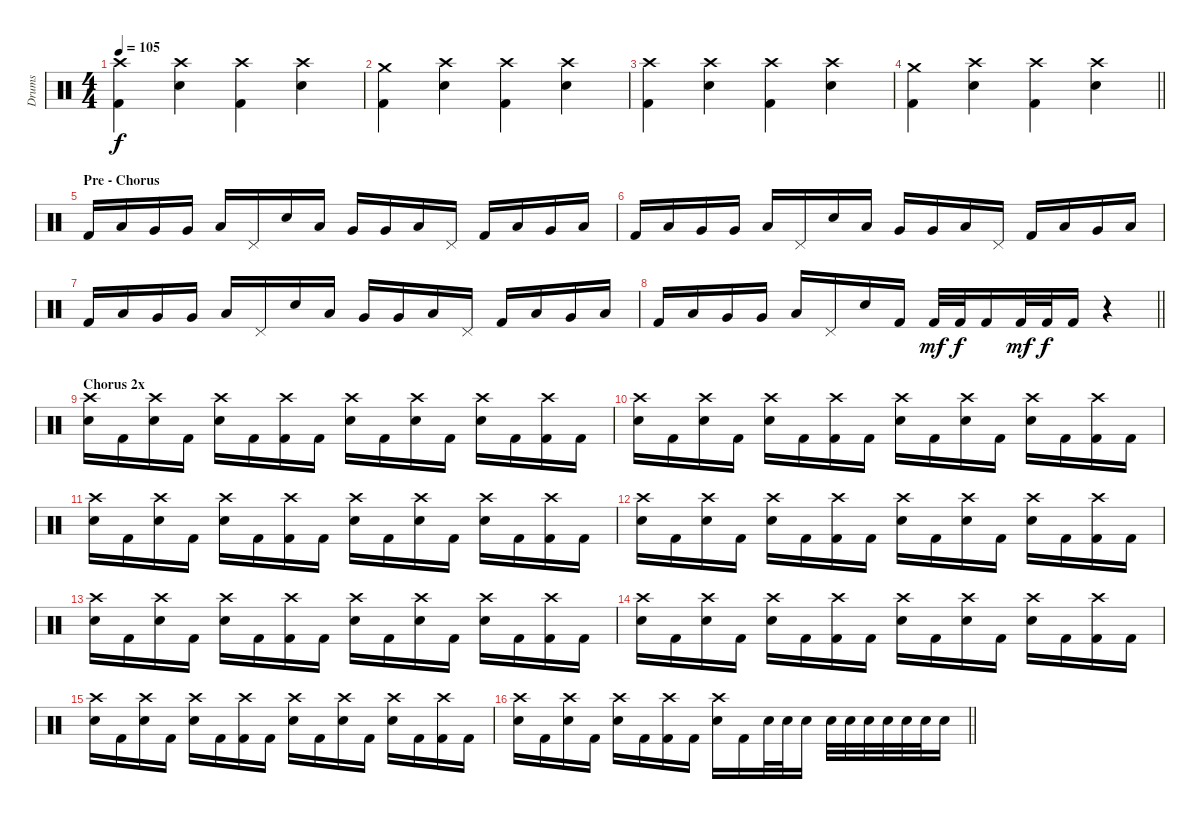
\track ("Drums" "Drums") {instrument percussion}
\staff {score}
\articulation defaults
\ts (4 4)
\tempo 105
\clef neutral
\ks c
("Crash high (hit)" "Kick (hit) 2").4{dy f} ("Crash high (hit)" "Electric Snare (hit)").4 ("Crash high (hit)" "Kick (hit) 2").4 ("Crash high (hit)" "Electric Snare (hit)").4 |
("Crash medium (hit)" "Kick (hit) 2").4 ("Crash high (hit)" "Electric Snare (hit)").4 ("Crash high (hit)" "Kick (hit) 2").4 ("Crash high (hit)" "Electric Snare (hit)").4 |
("Crash high (hit)" "Kick (hit) 2").4 ("Crash high (hit)" "Electric Snare (hit)").4 ("Crash high (hit)" "Kick (hit) 2").4 ("Crash high (hit)" "Electric Snare (hit)").4 |
\barLineRight lightlight
("Crash medium (hit)" "Kick (hit) 2").4 ("Crash high (hit)" "Electric Snare (hit)").4 ("Crash high (hit)" "Kick (hit) 2").4 ("Crash high (hit)" "Electric Snare (hit)").4 |
\section ("" "Pre - Chorus")
"Kick (hit) 2".16 "Low Tom (hit)".16 "Very Low Tom (hit)".16 "Very Low Tom (hit)".16 "Low Floor Tom (hit)".16 "Pedal Hi-Hat (hit)".16 "Electric Snare (hit)".16 "Low Tom (hit)".16 "Very Low Tom (hit)".16 "Very Low Tom (hit)".16 "Low Floor Tom (hit)".16 "Pedal Hi-Hat (hit)".16 "Kick (hit) 2".16 "Low Tom (hit)".16 "Very Low Tom (hit)".16 "Low Floor Tom (hit)".16 |
"Kick (hit) 2".16 "Low Tom (hit)".16 "Very Low Tom (hit)".16 "Very Low Tom (hit)".16 "Low Floor Tom (hit)".16 "Pedal Hi-Hat (hit)".16 "Electric Snare (hit)".16 "Low Tom (hit)".16 "Very Low Tom (hit)".16 "Very Low Tom (hit)".16 "Low Floor Tom (hit)".16 "Pedal Hi-Hat (hit)".16 "Kick (hit) 2".16 "Low Tom (hit)".16 "Very Low Tom (hit)".16 "Low Floor Tom (hit)".16 |
"Kick (hit) 2".16 "Low Tom (hit)".16 "Very Low Tom (hit)".16 "Very Low Tom (hit)".16 "Low Floor Tom (hit)".16 "Pedal Hi-Hat (hit)".16 "Electric Snare (hit)".16 "Low Tom (hit)".16 "Very Low Tom (hit)".16 "Very Low Tom (hit)".16 "Low Floor Tom (hit)".16 "Pedal Hi-Hat (hit)".16 "Kick (hit) 2".16 "Low Tom (hit)".16 "Very Low Tom (hit)".16 "Low Floor Tom (hit)".16 |
\barLineRight lightlight "Kick (hit) 2".16 "Low Tom (hit)".16 "Very Low Tom (hit)".16 "Very Low Tom (hit)".16 "Low Floor Tom (hit)".16 "Pedal Hi-Hat (hit)".16 "Electric Snare (hit)".16 "Kick (hit) 2".16 "Kick (hit) 2".32{dy mf} "Kick (hit) 2".32{dy f} "Kick (hit) 2".16 "Kick (hit) 2".32{dy mf} "Kick (hit) 2".32{dy f} "Kick (hit) 2".16
r.4 |
\section ("" "Chorus 2x")
("Crash high (hit)" "Electric Snare (hit)").16 "Kick (hit) 2".16 ("Crash high (hit)" "Electric Snare (hit)").16 "Kick (hit) 2".16 ("Crash high (hit)" "Electric Snare (hit)").16 "Kick (hit) 2".16 ("Crash high (hit)" "Kick (hit) 2").16 "Kick (hit) 2".16 ("Crash high (hit)" "Electric Snare (hit)").16 "Kick (hit) 2".16 ("Crash high (hit)" "Electric Snare (hit)").16 "Kick (hit) 2".16 ("Crash high (hit)" "Electric Snare (hit)").16 "Kick (hit) 2".16 ("Crash high (hit)" "Kick (hit) 2").16 "Kick (hit) 2".16 |
("Crash high (hit)" "Electric Snare (hit)").16 "Kick (hit) 2".16 ("Crash high (hit)" "Electric Snare (hit)").16 "Kick (hit) 2".16 ("Crash high (hit)" "Electric Snare (hit)").16 "Kick (hit) 2".16 ("Crash high (hit)" "Kick (hit) 2").16 "Kick (hit) 2".16 ("Crash high (hit)" "Electric Snare (hit)").16 "Kick (hit) 2".16 ("Crash high (hit)" "Electric Snare (hit)").16 "Kick (hit) 2".16 ("Crash high (hit)" "Electric Snare (hit)").16 "Kick (hit) 2".16 ("Crash high (hit)" "Kick (hit) 2").16 "Kick (hit) 2".16 |
("Crash high (hit)" "Electric Snare (hit)").16 "Kick (hit) 2".16 ("Crash high (hit)" "Electric Snare (hit)").16 "Kick (hit) 2".16 ("Crash high (hit)" "Electric Snare (hit)").16 "Kick (hit) 2".16 ("Crash high (hit)" "Kick (hit) 2").16 "Kick (hit) 2".16 ("Crash high (hit)" "Electric Snare (hit)").16 "Kick (hit) 2".16 ("Crash high (hit)" "Electric Snare (hit)").16 "Kick (hit) 2".16 ("Crash high (hit)" "Electric Snare (hit)").16 "Kick (hit) 2".16 ("Crash high (hit)" "Kick (hit) 2").16 "Kick (hit) 2".16 |
("Crash high (hit)" "Electric Snare (hit)").16 "Kick (hit) 2".16 ("Crash high (hit)" "Electric Snare (hit)").16 "Kick (hit) 2".16 ("Crash high (hit)" "Electric Snare (hit)").16 "Kick (hit) 2".16 ("Crash high (hit)" "Kick (hit) 2").16 "Kick (hit) 2".16 ("Crash high (hit)" "Electric Snare (hit)").16 "Kick (hit) 2".16 ("Crash high (hit)" "Electric Snare (hit)").16 "Kick (hit) 2".16 ("Crash high (hit)" "Electric Snare (hit)").16 "Kick (hit) 2".16 ("Crash high (hit)" "Kick (hit) 2").16 "Kick (hit) 2".16 |
("Crash high (hit)" "Electric Snare (hit)").16 "Kick (hit) 2".16 ("Crash high (hit)" "Electric Snare (hit)").16 "Kick (hit) 2".16 ("Crash high (hit)" "Electric Snare (hit)").16 "Kick (hit) 2".16 ("Crash high (hit)" "Kick (hit) 2").16 "Kick (hit) 2".16 ("Crash high (hit)" "Electric Snare (hit)").16 "Kick (hit) 2".16 ("Crash high (hit)" "Electric Snare (hit)").16 "Kick (hit) 2".16 ("Crash high (hit)" "Electric Snare (hit)").16 "Kick (hit) 2".16 ("Crash high (hit)" "Kick (hit) 2").16 "Kick (hit) 2".16 |
("Crash high (hit)" "Electric Snare (hit)").16 "Kick (hit) 2".16 ("Crash high (hit)" "Electric Snare (hit)").16 "Kick (hit) 2".16 ("Crash high (hit)" "Electric Snare (hit)").16 "Kick (hit) 2".16 ("Crash high (hit)" "Kick (hit) 2").16 "Kick (hit) 2".16 ("Crash high (hit)" "Electric Snare (hit)").16 "Kick (hit) 2".16 ("Crash high (hit)" "Electric Snare (hit)").16 "Kick (hit) 2".16 ("Crash high (hit)" "Electric Snare (hit)").16 "Kick (hit) 2".16 ("Crash high (hit)" "Kick (hit) 2").16 "Kick (hit) 2".16 |
("Crash high (hit)" "Electric Snare (hit)").16 "Kick (hit) 2".16 ("Crash high (hit)" "Electric Snare (hit)").16 "Kick (hit) 2".16 ("Crash high (hit)" "Electric Snare (hit)").16 "Kick (hit) 2".16 ("Crash high (hit)" "Kick (hit) 2").16 "Kick (hit) 2".16 ("Crash high (hit)" "Electric Snare (hit)").16 "Kick (hit) 2".16 ("Crash high (hit)" "Electric Snare (hit)").16 "Kick (hit) 2".16 ("Crash high (hit)" "Electric Snare (hit)").16 "Kick (hit) 2".16 ("Crash high (hit)" "Kick (hit) 2").16 "Kick (hit) 2".16 |
\barLineRight lightlight
("Crash high (hit)" "Electric Snare (hit)").16 "Kick (hit) 2".16 ("Crash high (hit)" "Electric Snare (hit)").16 "Kick (hit) 2".16 ("Crash high (hit)" "Electric Snare (hit)").16 "Kick (hit) 2".16 ("Crash high (hit)" "Kick (hit) 2").16 "Kick (hit) 2".16 ("Crash high (hit)" "Electric Snare (hit)").16 "Kick (hit) 2".16 "Electric Snare (hit)".32 "Electric Snare (hit)".32 "Electric Snare (hit)".16 "Electric Snare (hit)".32 "Electric Snare (hit)".32 "Electric Snare (hit)".32 "Electric Snare (hit)".32 "Electric Snare (hit)".32 "Electric Snare (hit)".32 "Electric Snare (hit)".16
